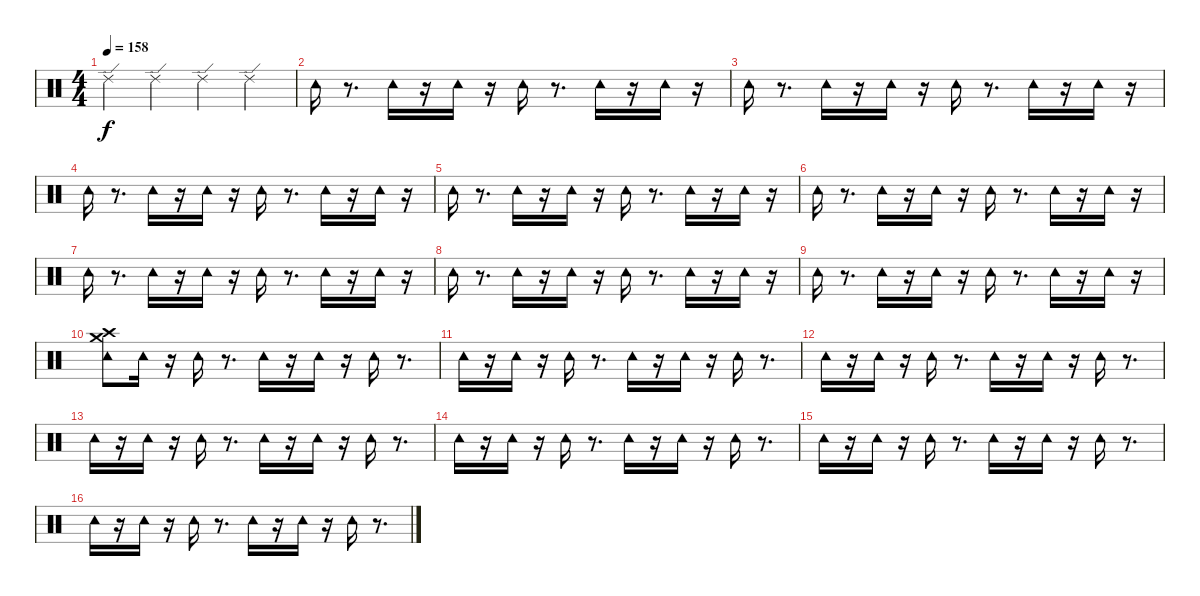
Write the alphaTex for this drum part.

\track "" {instrument percussion}
\staff {score}
\articulation defaults
\ts (4 4)
\tempo 158
\clef neutral
\ks c "Ride (edge) 2".4{dy f} "Ride (edge) 2".4 "Ride (edge) 2".4 "Ride (edge) 2".4
|
"Tambourine (hit)".16 r.8{d} "Tambourine (hit)".16 r.16 "Tambourine (hit)".16 r.16 "Tambourine (hit)".16 r.8{d} "Tambourine (hit)".16 r.16 "Tambourine (hit)".16 r.16 |
"Tambourine (hit)".16 r.8{d} "Tambourine (hit)".16 r.16 "Tambourine (hit)".16 r.16 "Tambourine (hit)".16 r.8{d} "Tambourine (hit)".16 r.16 "Tambourine (hit)".16 r.16 |
"Tambourine (hit)".16 r.8{d} "Tambourine (hit)".16 r.16 "Tambourine (hit)".16 r.16 "Tambourine (hit)".16 r.8{d} "Tambourine (hit)".16 r.16 "Tambourine (hit)".16 r.16 |
"Tambourine (hit)".16 r.8{d} "Tambourine (hit)".16 r.16 "Tambourine (hit)".16 r.16 "Tambourine (hit)".16 r.8{d} "Tambourine (hit)".16 r.16 "Tambourine (hit)".16 r.16 |
"Tambourine (hit)".16 r.8{d} "Tambourine (hit)".16 r.16 "Tambourine (hit)".16 r.16 "Tambourine (hit)".16 r.8{d} "Tambourine (hit)".16 r.16 "Tambourine (hit)".16 r.16 |
"Tambourine (hit)".16 r.8{d} "Tambourine (hit)".16 r.16 "Tambourine (hit)".16 r.16 "Tambourine (hit)".16 r.8{d} "Tambourine (hit)".16 r.16 "Tambourine (hit)".16 r.16 |
"Tambourine (hit)".16 r.8{d} "Tambourine (hit)".16 r.16 "Tambourine (hit)".16 r.16 "Tambourine (hit)".16 r.8{d} "Tambourine (hit)".16 r.16 "Tambourine (hit)".16 r.16 |
"Tambourine (hit)".16 r.8{d} "Tambourine (hit)".16 r.16 "Tambourine (hit)".16 r.16 "Tambourine (hit)".16 r.8{d} "Tambourine (hit)".16 r.16 "Tambourine (hit)".16 r.16 |
("Crash medium (hit)" "Crash high (hit)" "Tambourine (hit)").8 "Tambourine (hit)".16 r.16 "Tambourine (hit)".16 r.8{d} "Tambourine (hit)".16 r.16 "Tambourine (hit)".16 r.16 "Tambourine (hit)".16 r.8{d} |
"Tambourine (hit)".16 r.16 "Tambourine (hit)".16 r.16 "Tambourine (hit)".16 r.8{d} "Tambourine (hit)".16 r.16 "Tambourine (hit)".16 r.16 "Tambourine (hit)".16 r.8{d} |
"Tambourine (hit)".16 r.16 "Tambourine (hit)".16 r.16 "Tambourine (hit)".16 r.8{d} "Tambourine (hit)".16 r.16 "Tambourine (hit)".16 r.16 "Tambourine (hit)".16 r.8{d} |
"Tambourine (hit)".16 r.16 "Tambourine (hit)".16 r.16 "Tambourine (hit)".16 r.8{d} "Tambourine (hit)".16 r.16 "Tambourine (hit)".16 r.16 "Tambourine (hit)".16 r.8{d} |
"Tambourine (hit)".16 r.16 "Tambourine (hit)".16 r.16 "Tambourine (hit)".16 r.8{d} "Tambourine (hit)".16 r.16 "Tambourine (hit)".16 r.16 "Tambourine (hit)".16 r.8{d} |
"Tambourine (hit)".16 r.16 "Tambourine (hit)".16 r.16 "Tambourine (hit)".16 r.8{d} "Tambourine (hit)".16 r.16 "Tambourine (hit)".16 r.16 "Tambourine (hit)".16 r.8{d} |
"Tambourine (hit)".16 r.16 "Tambourine (hit)".16 r.16 "Tambourine (hit)".16 r.8{d} "Tambourine (hit)".16 r.16 "Tambourine (hit)".16 r.16 "Tambourine (hit)".16 r.8{d}
